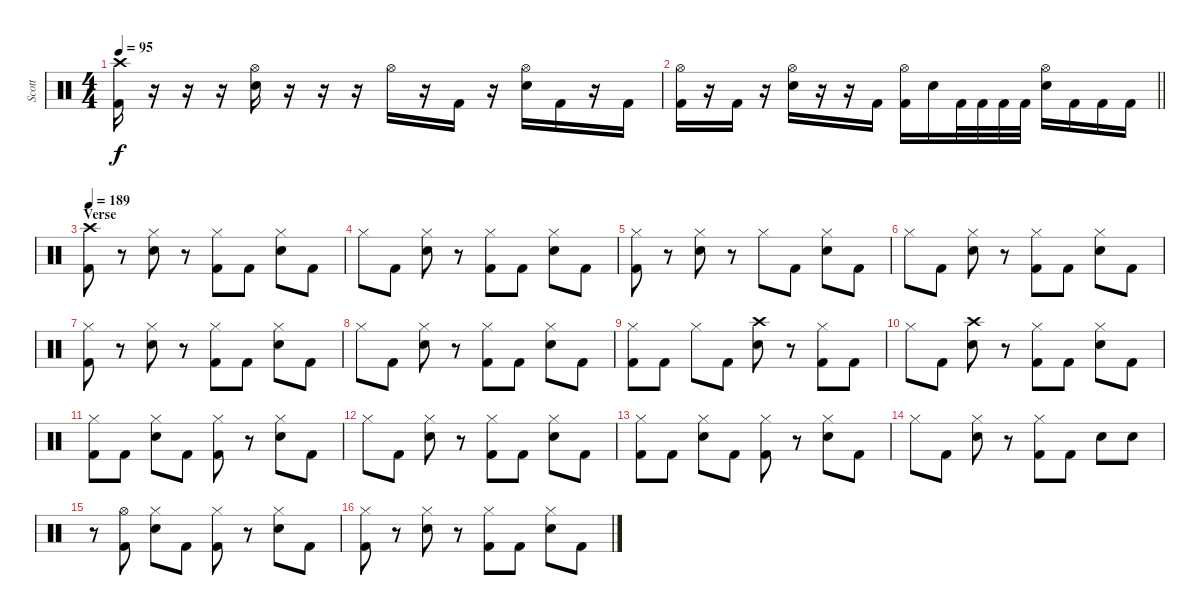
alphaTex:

\track ("Scott" "Scott") {instrument percussion}
\staff {score}
\articulation defaults
\ts (4 4)
\tempo 95
\clef neutral
\ks c
("Crash high (hit)" "Kick (hit) 2").16{dy f} r.16 r.16 r.16 ("Hi-Hat (open)" "Electric Snare (hit)").16 r.16 r.16 r.16 "Hi-Hat (open)".16 r.16 "Kick (hit) 2".16 r.16 ("Hi-Hat (open)" "Electric Snare (hit)").16 "Kick (hit) 2".16 r.16 "Kick (hit) 2".16 |
\barLineRight lightlight
("Hi-Hat (open)" "Kick (hit) 2").16 r.16 "Kick (hit) 2".16 r.16 ("Hi-Hat (open)" "Electric Snare (hit)").16 r.16 r.16 "Kick (hit) 2".16 ("Hi-Hat (open)" "Kick (hit) 2").16 "Electric Snare (hit)".16 "Kick (hit) 2".32 "Kick (hit) 2".32 "Kick (hit) 2".32 "Kick (hit) 2".32 ("Hi-Hat (open)" "Electric Snare (hit)").16 "Kick (hit) 2".16 "Kick (hit) 2".16 "Kick (hit) 2".16 |
\section ("" "Verse")
\tempo 189
("Crash high (hit)" "Kick (hit) 2").8 r.8 ("Hi-Hat (closed)" "Electric Snare (hit)").8 r.8 ("Hi-Hat (closed)" "Kick (hit) 2").8 "Kick (hit) 2".8 ("Hi-Hat (closed)" "Electric Snare (hit)").8 "Kick (hit) 2".8 |
"Hi-Hat (closed)".8 "Kick (hit) 2".8 ("Hi-Hat (closed)" "Electric Snare (hit)").8 r.8 ("Hi-Hat (closed)" "Kick (hit) 2").8 "Kick (hit) 2".8 ("Hi-Hat (closed)" "Electric Snare (hit)").8 "Kick (hit) 2".8 |
("Hi-Hat (closed)" "Kick (hit) 2").8 r.8 ("Hi-Hat (closed)" "Electric Snare (hit)").8 r.8 "Hi-Hat (closed)".8 "Kick (hit) 2".8 ("Hi-Hat (closed)" "Electric Snare (hit)").8 "Kick (hit) 2".8 |
"Hi-Hat (closed)".8 "Kick (hit) 2".8 ("Hi-Hat (closed)" "Electric Snare (hit)").8 r.8 ("Hi-Hat (closed)" "Kick (hit) 2").8 "Kick (hit) 2".8 ("Hi-Hat (closed)" "Electric Snare (hit)").8 "Kick (hit) 2".8 |
("Hi-Hat (closed)" "Kick (hit) 2").8 r.8 ("Hi-Hat (closed)" "Electric Snare (hit)").8 r.8 ("Hi-Hat (closed)" "Kick (hit) 2").8 "Kick (hit) 2".8 ("Hi-Hat (closed)" "Electric Snare (hit)").8 "Kick (hit) 2".8 |
"Hi-Hat (closed)".8 "Kick (hit) 2".8 ("Hi-Hat (closed)" "Electric Snare (hit)").8 r.8 ("Hi-Hat (closed)" "Kick (hit) 2").8 "Kick (hit) 2".8 ("Hi-Hat (closed)" "Electric Snare (hit)").8 "Kick (hit) 2".8 |
("Hi-Hat (closed)" "Kick (hit) 2").8 "Kick (hit) 2".8 "Hi-Hat (closed)".8 "Kick (hit) 2".8 ("Crash high (hit)" "Electric Snare (hit)").8 r.8 ("Hi-Hat (closed)" "Kick (hit) 2").8 "Kick (hit) 2".8 |
"Hi-Hat (closed)".8 "Kick (hit) 2".8 ("Crash high (hit)" "Electric Snare (hit)").8 r.8 ("Hi-Hat (closed)" "Kick (hit) 2").8 "Kick (hit) 2".8 ("Hi-Hat (closed)" "Electric Snare (hit)").8 "Kick (hit) 2".8 |
("Hi-Hat (closed)" "Kick (hit) 2").8 "Kick (hit) 2".8 ("Hi-Hat (closed)" "Electric Snare (hit)").8 "Kick (hit) 2".8 ("Hi-Hat (closed)" "Kick (hit) 2").8 r.8 ("Hi-Hat (closed)" "Electric Snare (hit)").8 "Kick (hit) 2".8 |
"Hi-Hat (closed)".8 "Kick (hit) 2".8 ("Hi-Hat (closed)" "Electric Snare (hit)").8 r.8 ("Hi-Hat (closed)" "Kick (hit) 2").8 "Kick (hit) 2".8 ("Hi-Hat (closed)" "Electric Snare (hit)").8 "Kick (hit) 2".8 |
("Hi-Hat (closed)" "Kick (hit) 2").8 "Kick (hit) 2".8 ("Hi-Hat (closed)" "Electric Snare (hit)").8 "Kick (hit) 2".8 ("Hi-Hat (closed)" "Kick (hit) 2").8 r.8 ("Hi-Hat (closed)" "Electric Snare (hit)").8 "Kick (hit) 2".8 |
"Hi-Hat (closed)".8 "Kick (hit) 2".8 ("Hi-Hat (closed)" "Electric Snare (hit)").8 r.8 ("Hi-Hat (closed)" "Kick (hit) 2").8 "Kick (hit) 2".8 "Electric Snare (hit)".8 "Electric Snare (hit)".8 |
r.8 ("Hi-Hat (open)" "Kick (hit) 2").8 ("Hi-Hat (closed)" "Electric Snare (hit)").8 "Kick (hit) 2".8 ("Hi-Hat (closed)" "Kick (hit) 2").8 r.8 ("Hi-Hat (closed)" "Electric Snare (hit)").8 "Kick (hit) 2".8 |
("Hi-Hat (closed)" "Kick (hit) 2").8 r.8 ("Hi-Hat (closed)" "Electric Snare (hit)").8 r.8 ("Hi-Hat (closed)" "Kick (hit) 2").8 "Kick (hit) 2".8 ("Hi-Hat (closed)" "Electric Snare (hit)").8 "Kick (hit) 2".8
